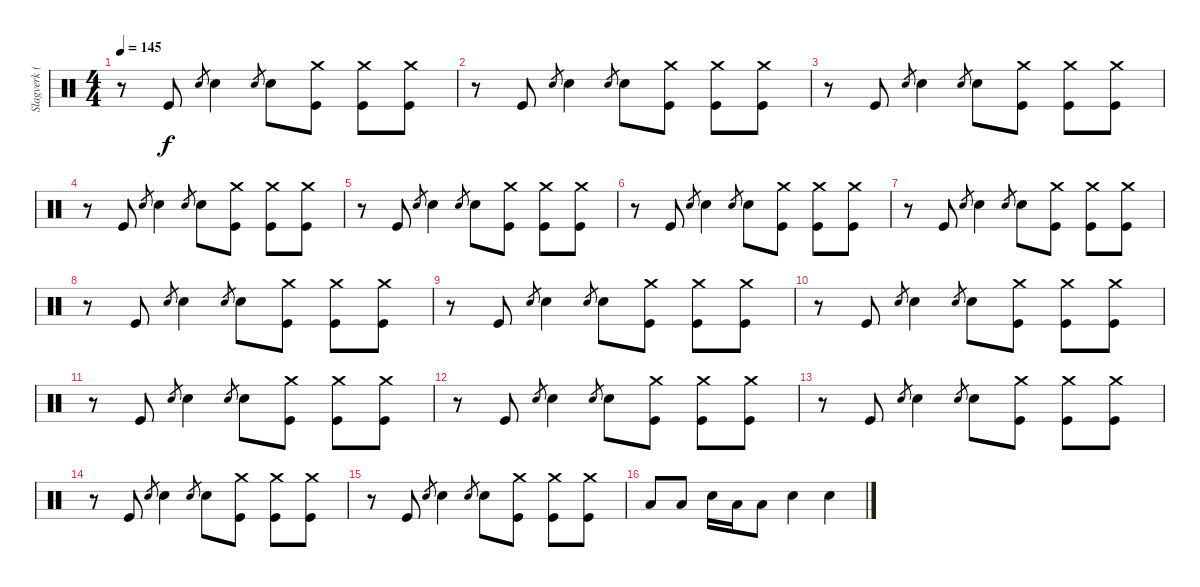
\track ("Slagverk (Jan)" "Slagverk (") {instrument percussion}
\staff {score}
\articulation defaults
\ts (4 4)
\tempo 145
\clef neutral
\ks c
r.8{dy f} "Kick (hit)".8 "Snare (hit) 2".8{gr} "Snare (hit) 2".4 "Snare (hit) 2".8{gr} "Snare (hit) 2".8 ("Crash medium (hit)" "Kick (hit)").8 ("Crash medium (hit)" "Kick (hit)").8 ("Crash medium (hit)" "Kick (hit)").8 |
r.8 "Kick (hit)".8 "Snare (hit) 2".8{gr} "Snare (hit) 2".4 "Snare (hit) 2".8{gr} "Snare (hit) 2".8 ("Crash medium (hit)" "Kick (hit)").8 ("Crash medium (hit)" "Kick (hit)").8 ("Crash medium (hit)" "Kick (hit)").8 |
r.8 "Kick (hit)".8 "Snare (hit) 2".8{gr} "Snare (hit) 2".4 "Snare (hit) 2".8{gr} "Snare (hit) 2".8 ("Crash medium (hit)" "Kick (hit)").8 ("Crash medium (hit)" "Kick (hit)").8 ("Crash medium (hit)" "Kick (hit)").8 |
r.8 "Kick (hit)".8 "Snare (hit) 2".8{gr} "Snare (hit) 2".4 "Snare (hit) 2".8{gr} "Snare (hit) 2".8 ("Crash medium (hit)" "Kick (hit)").8 ("Crash medium (hit)" "Kick (hit)").8 ("Crash medium (hit)" "Kick (hit)").8 |
r.8 "Kick (hit)".8 "Snare (hit) 2".8{gr} "Snare (hit) 2".4 "Snare (hit) 2".8{gr} "Snare (hit) 2".8 ("Crash medium (hit)" "Kick (hit)").8 ("Crash medium (hit)" "Kick (hit)").8 ("Crash medium (hit)" "Kick (hit)").8 |
r.8 "Kick (hit)".8 "Snare (hit) 2".8{gr} "Snare (hit) 2".4 "Snare (hit) 2".8{gr} "Snare (hit) 2".8 ("Crash medium (hit)" "Kick (hit)").8 ("Crash medium (hit)" "Kick (hit)").8 ("Crash medium (hit)" "Kick (hit)").8 |
r.8 "Kick (hit)".8 "Snare (hit) 2".8{gr} "Snare (hit) 2".4 "Snare (hit) 2".8{gr} "Snare (hit) 2".8 ("Crash medium (hit)" "Kick (hit)").8 ("Crash medium (hit)" "Kick (hit)").8 ("Crash medium (hit)" "Kick (hit)").8 |
r.8 "Kick (hit)".8 "Snare (hit) 2".8{gr} "Snare (hit) 2".4 "Snare (hit) 2".8{gr} "Snare (hit) 2".8 ("Crash medium (hit)" "Kick (hit)").8 ("Crash medium (hit)" "Kick (hit)").8 ("Crash medium (hit)" "Kick (hit)").8 |
r.8 "Kick (hit)".8 "Snare (hit) 2".8{gr} "Snare (hit) 2".4 "Snare (hit) 2".8{gr} "Snare (hit) 2".8 ("Crash medium (hit)" "Kick (hit)").8 ("Crash medium (hit)" "Kick (hit)").8 ("Crash medium (hit)" "Kick (hit)").8 |
r.8 "Kick (hit)".8 "Snare (hit) 2".8{gr} "Snare (hit) 2".4 "Snare (hit) 2".8{gr} "Snare (hit) 2".8 ("Crash medium (hit)" "Kick (hit)").8 ("Crash medium (hit)" "Kick (hit)").8 ("Crash medium (hit)" "Kick (hit)").8 |
r.8 "Kick (hit)".8 "Snare (hit) 2".8{gr} "Snare (hit) 2".4 "Snare (hit) 2".8{gr} "Snare (hit) 2".8 ("Crash medium (hit)" "Kick (hit)").8 ("Crash medium (hit)" "Kick (hit)").8 ("Crash medium (hit)" "Kick (hit)").8 |
r.8 "Kick (hit)".8 "Snare (hit) 2".8{gr} "Snare (hit) 2".4 "Snare (hit) 2".8{gr} "Snare (hit) 2".8 ("Crash medium (hit)" "Kick (hit)").8 ("Crash medium (hit)" "Kick (hit)").8 ("Crash medium (hit)" "Kick (hit)").8 |
r.8 "Kick (hit)".8 "Snare (hit) 2".8{gr} "Snare (hit) 2".4 "Snare (hit) 2".8{gr} "Snare (hit) 2".8 ("Crash medium (hit)" "Kick (hit)").8 ("Crash medium (hit)" "Kick (hit)").8 ("Crash medium (hit)" "Kick (hit)").8 |
r.8 "Kick (hit)".8 "Snare (hit) 2".8{gr} "Snare (hit) 2".4 "Snare (hit) 2".8{gr} "Snare (hit) 2".8 ("Crash medium (hit)" "Kick (hit)").8 ("Crash medium (hit)" "Kick (hit)").8 ("Crash medium (hit)" "Kick (hit)").8 |
r.8 "Kick (hit)".8 "Snare (hit) 2".8{gr} "Snare (hit) 2".4 "Snare (hit) 2".8{gr} "Snare (hit) 2".8 ("Crash medium (hit)" "Kick (hit)").8 ("Crash medium (hit)" "Kick (hit)").8 ("Crash medium (hit)" "Kick (hit)").8 |
"Low Tom (hit)".8 "Low Tom (hit)".8 "Snare (hit) 2".16 "Low Tom (hit)".16 "Low Tom (hit)".8 "Snare (hit) 2".4 "Snare (hit) 2".4
